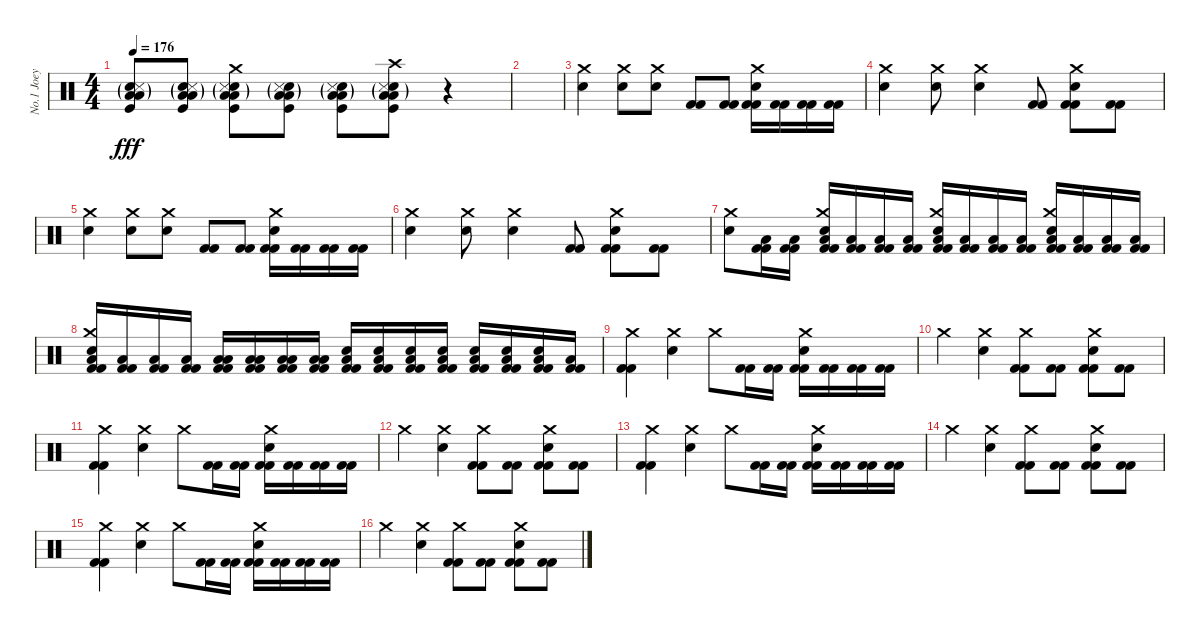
\track ("No.1 Joey" "No.1 Joey") {instrument percussion}
\staff {score}
\articulation defaults
\ts (4 4)
\tempo 176
\clef neutral
\ks c
("Snare (hit) 2" "Low Tom (hit)"{g} "Low Floor Tom (hit)" "Snare (side stick) 3"{g} "Kick (hit)").8{dy fff} ("Snare (hit) 2" "Low Tom (hit)"{g} "Low Floor Tom (hit)" "Snare (side stick) 3"{g} "Kick (hit)").8 ("Crash medium (hit)" "Snare (hit) 2" "Low Tom (hit)"{g} "Low Floor Tom (hit)" "Snare (side stick) 3"{g} "Kick (hit)").8 ("Snare (hit) 2" "Low Tom (hit)"{g} "Low Floor Tom (hit)" "Snare (side stick) 3"{g} "Kick (hit)").8 ("Snare (hit) 2" "Low Tom (hit)"{g} "Low Floor Tom (hit)" "Snare (side stick) 3"{g} "Kick (hit)").8 ("Crash high (hit)" "Snare (hit) 2" "Low Tom (hit)"{g} "Low Floor Tom (hit)" "Snare (side stick) 3"{g} "Kick (hit)").8 r.4 |
|
("Electric Snare (hit)" "Crash medium (hit)").4 ("Electric Snare (hit)" "Crash medium (hit)").8 ("Electric Snare (hit)" "Crash medium (hit)").8 ("Kick (hit) 2" "Kick (hit) 2").8 ("Kick (hit) 2" "Kick (hit) 2").8 ("Electric Snare (hit)" "Crash medium (hit)" "Kick (hit) 2" "Kick (hit) 2").16 ("Kick (hit) 2" "Kick (hit) 2").16 ("Kick (hit) 2" "Kick (hit) 2").16 ("Kick (hit) 2" "Kick (hit) 2").16 |
("Electric Snare (hit)" "Crash medium (hit)").4 ("Electric Snare (hit)" "Crash medium (hit)").8 ("Electric Snare (hit)" "Crash medium (hit)").4 ("Kick (hit) 2" "Kick (hit) 2").8 ("Electric Snare (hit)" "Crash medium (hit)" "Kick (hit) 2" "Kick (hit) 2").8 ("Kick (hit) 2" "Kick (hit) 2").8 |
("Electric Snare (hit)" "Crash medium (hit)").4 ("Electric Snare (hit)" "Crash medium (hit)").8 ("Electric Snare (hit)" "Crash medium (hit)").8 ("Kick (hit) 2" "Kick (hit) 2").8 ("Kick (hit) 2" "Kick (hit) 2").8 ("Electric Snare (hit)" "Crash medium (hit)" "Kick (hit) 2" "Kick (hit) 2").16 ("Kick (hit) 2" "Kick (hit) 2").16 ("Kick (hit) 2" "Kick (hit) 2").16 ("Kick (hit) 2" "Kick (hit) 2").16 |
("Electric Snare (hit)" "Crash medium (hit)").4 ("Electric Snare (hit)" "Crash medium (hit)").8 ("Electric Snare (hit)" "Crash medium (hit)").4 ("Kick (hit) 2" "Kick (hit) 2").8 ("Electric Snare (hit)" "Crash medium (hit)" "Kick (hit) 2" "Kick (hit) 2").8 ("Kick (hit) 2" "Kick (hit) 2").8 |
("Electric Snare (hit)" "Crash medium (hit)").8 ("Low Floor Tom (hit)" "Kick (hit) 2" "Kick (hit) 2").16 ("Low Floor Tom (hit)" "Kick (hit) 2" "Kick (hit) 2").16 ("Electric Snare (hit)" "Crash medium (hit)" "Low Floor Tom (hit)" "Kick (hit) 2" "Kick (hit) 2").16 ("Low Floor Tom (hit)" "Kick (hit) 2" "Kick (hit) 2").16 ("Low Floor Tom (hit)" "Kick (hit) 2" "Kick (hit) 2").16 ("Low Floor Tom (hit)" "Kick (hit) 2" "Kick (hit) 2").16 ("Electric Snare (hit)" "Crash medium (hit)" "Low Floor Tom (hit)" "Kick (hit) 2" "Kick (hit) 2").16 ("Low Floor Tom (hit)" "Kick (hit) 2" "Kick (hit) 2").16 ("Low Floor Tom (hit)" "Kick (hit) 2" "Kick (hit) 2").16 ("Low Floor Tom (hit)" "Kick (hit) 2" "Kick (hit) 2").16 ("Electric Snare (hit)" "Crash medium (hit)" "Low Floor Tom (hit)" "Kick (hit) 2" "Kick (hit) 2").16 ("Low Floor Tom (hit)" "Kick (hit) 2" "Kick (hit) 2").16 ("Low Floor Tom (hit)" "Kick (hit) 2" "Kick (hit) 2").16 ("Low Floor Tom (hit)" "Kick (hit) 2" "Kick (hit) 2").16 |
("Electric Snare (hit)" "Crash medium (hit)" "Low Floor Tom (hit)" "Kick (hit) 2" "Kick (hit) 2").16 ("Low Floor Tom (hit)" "Kick (hit) 2" "Kick (hit) 2").16 ("Low Floor Tom (hit)" "Kick (hit) 2" "Kick (hit) 2").16 ("Low Floor Tom (hit)" "Kick (hit) 2" "Kick (hit) 2").16 ("Low Floor Tom (hit)" "Low Floor Tom (hit)" "Kick (hit) 2" "Kick (hit) 2").16 ("Low Floor Tom (hit)" "Low Floor Tom (hit)" "Kick (hit) 2" "Kick (hit) 2").16 ("Low Floor Tom (hit)" "Low Floor Tom (hit)" "Kick (hit) 2" "Kick (hit) 2").16 ("Low Floor Tom (hit)" "Low Floor Tom (hit)" "Kick (hit) 2" "Kick (hit) 2").16 ("Snare (hit) 2" "Low Floor Tom (hit)" "Kick (hit) 2" "Kick (hit) 2").16 ("Snare (hit) 2" "Low Floor Tom (hit)" "Kick (hit) 2" "Kick (hit) 2").16 ("Snare (hit) 2" "Low Floor Tom (hit)" "Kick (hit) 2" "Kick (hit) 2").16 ("Snare (hit) 2" "Low Floor Tom (hit)" "Kick (hit) 2" "Kick (hit) 2").16 ("Electric Snare (hit)" "Low Floor Tom (hit)" "Kick (hit) 2" "Kick (hit) 2").16 ("Electric Snare (hit)" "Low Floor Tom (hit)" "Kick (hit) 2" "Kick (hit) 2").16 ("Electric Snare (hit)" "Low Floor Tom (hit)" "Kick (hit) 2" "Kick (hit) 2").16 ("Low Floor Tom (hit)" "Kick (hit) 2" "Kick (hit) 2").16 |
("Crash medium (hit)" "Kick (hit) 2" "Kick (hit) 2").4 ("Electric Snare (hit)" "Crash medium (hit)").4 "Crash medium (hit)".8 ("Kick (hit) 2" "Kick (hit) 2").16 ("Kick (hit) 2" "Kick (hit) 2").16 ("Electric Snare (hit)" "Crash medium (hit)" "Kick (hit) 2" "Kick (hit) 2").16 ("Kick (hit) 2" "Kick (hit) 2").16 ("Kick (hit) 2" "Kick (hit) 2").16 ("Kick (hit) 2" "Kick (hit) 2").16 |
"Crash medium (hit)".4 ("Electric Snare (hit)" "Crash medium (hit)").4 ("Crash medium (hit)" "Kick (hit) 2" "Kick (hit) 2").8 ("Kick (hit) 2" "Kick (hit) 2").8 ("Electric Snare (hit)" "Crash medium (hit)" "Kick (hit) 2" "Kick (hit) 2").8 ("Kick (hit) 2" "Kick (hit) 2").8 |
("Crash medium (hit)" "Kick (hit) 2" "Kick (hit) 2").4 ("Electric Snare (hit)" "Crash medium (hit)").4 "Crash medium (hit)".8 ("Kick (hit) 2" "Kick (hit) 2").16 ("Kick (hit) 2" "Kick (hit) 2").16 ("Electric Snare (hit)" "Crash medium (hit)" "Kick (hit) 2" "Kick (hit) 2").16 ("Kick (hit) 2" "Kick (hit) 2").16 ("Kick (hit) 2" "Kick (hit) 2").16 ("Kick (hit) 2" "Kick (hit) 2").16 |
"Crash medium (hit)".4 ("Electric Snare (hit)" "Crash medium (hit)").4 ("Crash medium (hit)" "Kick (hit) 2" "Kick (hit) 2").8 ("Kick (hit) 2" "Kick (hit) 2").8 ("Electric Snare (hit)" "Crash medium (hit)" "Kick (hit) 2" "Kick (hit) 2").8 ("Kick (hit) 2" "Kick (hit) 2").8 |
("Crash medium (hit)" "Kick (hit) 2" "Kick (hit) 2").4 ("Electric Snare (hit)" "Crash medium (hit)").4 "Crash medium (hit)".8 ("Kick (hit) 2" "Kick (hit) 2").16 ("Kick (hit) 2" "Kick (hit) 2").16 ("Electric Snare (hit)" "Crash medium (hit)" "Kick (hit) 2" "Kick (hit) 2").16 ("Kick (hit) 2" "Kick (hit) 2").16 ("Kick (hit) 2" "Kick (hit) 2").16 ("Kick (hit) 2" "Kick (hit) 2").16 |
"Crash medium (hit)".4 ("Electric Snare (hit)" "Crash medium (hit)").4 ("Crash medium (hit)" "Kick (hit) 2" "Kick (hit) 2").8 ("Kick (hit) 2" "Kick (hit) 2").8 ("Electric Snare (hit)" "Crash medium (hit)" "Kick (hit) 2" "Kick (hit) 2").8 ("Kick (hit) 2" "Kick (hit) 2").8 |
("Crash medium (hit)" "Kick (hit) 2" "Kick (hit) 2").4 ("Electric Snare (hit)" "Crash medium (hit)").4 "Crash medium (hit)".8 ("Kick (hit) 2" "Kick (hit) 2").16 ("Kick (hit) 2" "Kick (hit) 2").16 ("Electric Snare (hit)" "Crash medium (hit)" "Kick (hit) 2" "Kick (hit) 2").16 ("Kick (hit) 2" "Kick (hit) 2").16 ("Kick (hit) 2" "Kick (hit) 2").16 ("Kick (hit) 2" "Kick (hit) 2").16 |
"Crash medium (hit)".4 ("Electric Snare (hit)" "Crash medium (hit)").4 ("Crash medium (hit)" "Kick (hit) 2" "Kick (hit) 2").8 ("Kick (hit) 2" "Kick (hit) 2").8 ("Electric Snare (hit)" "Crash medium (hit)" "Kick (hit) 2" "Kick (hit) 2").8 ("Kick (hit) 2" "Kick (hit) 2").8
